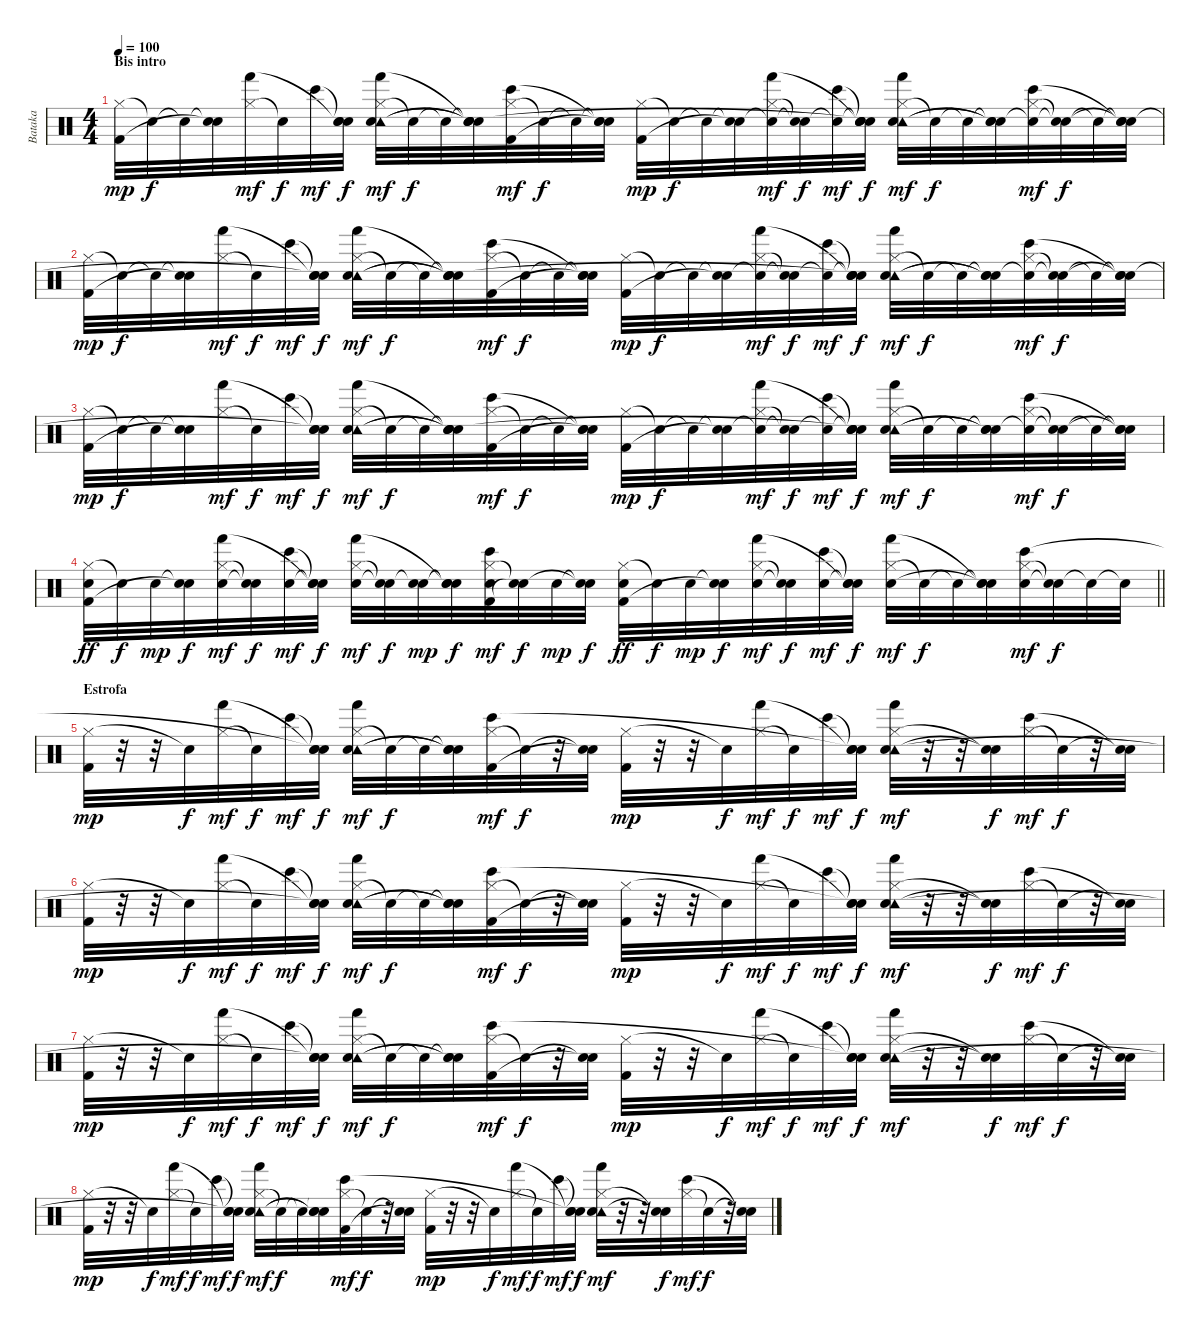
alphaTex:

\track ("Bataka" "Bataka") {instrument percussion}
\staff {score}
\articulation defaults
\ts (4 4)
\section ("" "Bis intro")
\tempo 100
\clef neutral
\ks c
("Hi-Hat (closed)" "Kick (hit) 2").32{dy mp} "Snare (hit)"{t}.32{dy f} "Snare (hit)"{t}.32 ("Snare (hit)"{t} "Snare (hit)"{t}).32 ("Hi-Hat (closed)" "Hand (hit)").32{dy mf} "Snare (hit)"{t}.32{dy f} "Bongo High (hit)".32{dy mf} ("Snare (hit)"{t} "Snare (hit)"{t} "Snare (hit)"{t}).32{dy f} ("Hi-Hat (closed)" "Tambourine (hit)" "Electric Snare (hit)" "Hand (hit)").32{dy mf} "Snare (hit)"{t}.32{dy f} "Snare (hit)"{t}.32 ("Snare (hit)"{t} "Snare (hit)"{t} "Snare (hit)"{t} "Snare (hit)"{t}).32 ("Hi-Hat (closed)" "Kick (hit) 2" "Bongo High (hit)").32{dy mf} "Snare (hit)"{t}.32{dy f} "Snare (hit)"{t}.32 ("Snare (hit)"{t} "Snare (hit)"{t} "Snare (hit)"{t}).32 ("Hi-Hat (closed)" "Kick (hit) 2").32{dy mp} "Snare (hit)"{t}.32{dy f} "Snare (hit)"{t}.32 ("Snare (hit)"{t} "Snare (hit)"{t}).32 ("Hi-Hat (closed)" "Snare (hit)"{t} "Hand (hit)").32{dy mf} ("Snare (hit)"{t} "Snare (hit)"{t}).32{dy f} ("Snare (hit)"{t} "Bongo High (hit)").32{dy mf} ("Snare (hit)"{t} "Snare (hit)"{t} "Snare (hit)"{t} "Snare (hit)"{t}).32{dy f} ("Hi-Hat (closed)" "Tambourine (hit)" "Electric Snare (hit)" "Hand (hit)").32{dy mf} "Snare (hit)"{t}.32{dy f} "Snare (hit)"{t}.32 ("Snare (hit)"{t} "Snare (hit)"{t} "Snare (hit)"{t}).32 ("Hi-Hat (closed)" "Snare (hit)"{t} "Bongo High (hit)").32{dy mf} ("Snare (hit)"{t} "Snare (hit)"{t}).32{dy f} "Snare (hit)"{t}.32 ("Snare (hit)"{t} "Snare (hit)"{t} "Snare (hit)"{t}).32 |
("Hi-Hat (closed)" "Kick (hit) 2").32{dy mp} "Snare (hit)"{t}.32{dy f} "Snare (hit)"{t}.32 ("Snare (hit)"{t} "Snare (hit)"{t}).32 ("Hi-Hat (closed)" "Hand (hit)").32{dy mf} "Snare (hit)"{t}.32{dy f} "Bongo High (hit)".32{dy mf} ("Snare (hit)"{t} "Snare (hit)"{t} "Snare (hit)"{t}).32{dy f} ("Hi-Hat (closed)" "Tambourine (hit)" "Electric Snare (hit)" "Hand (hit)").32{dy mf} "Snare (hit)"{t}.32{dy f} "Snare (hit)"{t}.32 ("Snare (hit)"{t} "Snare (hit)"{t} "Snare (hit)"{t} "Snare (hit)"{t}).32 ("Hi-Hat (closed)" "Kick (hit) 2" "Bongo High (hit)").32{dy mf} "Snare (hit)"{t}.32{dy f} "Snare (hit)"{t}.32 ("Snare (hit)"{t} "Snare (hit)"{t} "Snare (hit)"{t}).32 ("Hi-Hat (closed)" "Kick (hit) 2").32{dy mp} "Snare (hit)"{t}.32{dy f} "Snare (hit)"{t}.32 ("Snare (hit)"{t} "Snare (hit)"{t}).32 ("Hi-Hat (closed)" "Snare (hit)"{t} "Hand (hit)").32{dy mf} ("Snare (hit)"{t} "Snare (hit)"{t}).32{dy f} ("Snare (hit)"{t} "Bongo High (hit)").32{dy mf} ("Snare (hit)"{t} "Snare (hit)"{t} "Snare (hit)"{t} "Snare (hit)"{t}).32{dy f} ("Hi-Hat (closed)" "Tambourine (hit)" "Electric Snare (hit)" "Hand (hit)").32{dy mf} "Snare (hit)"{t}.32{dy f} "Snare (hit)"{t}.32 ("Snare (hit)"{t} "Snare (hit)"{t} "Snare (hit)"{t}).32 ("Hi-Hat (closed)" "Snare (hit)"{t} "Bongo High (hit)").32{dy mf} ("Snare (hit)"{t} "Snare (hit)"{t}).32{dy f} "Snare (hit)"{t}.32 ("Snare (hit)"{t} "Snare (hit)"{t} "Snare (hit)"{t}).32 |
("Hi-Hat (closed)" "Kick (hit) 2").32{dy mp} "Snare (hit)"{t}.32{dy f} "Snare (hit)"{t}.32 ("Snare (hit)"{t} "Snare (hit)"{t}).32 ("Hi-Hat (closed)" "Hand (hit)").32{dy mf} "Snare (hit)"{t}.32{dy f} "Bongo High (hit)".32{dy mf} ("Snare (hit)"{t} "Snare (hit)"{t} "Snare (hit)"{t}).32{dy f} ("Hi-Hat (closed)" "Tambourine (hit)" "Electric Snare (hit)" "Hand (hit)").32{dy mf} "Snare (hit)"{t}.32{dy f} "Snare (hit)"{t}.32 ("Snare (hit)"{t} "Snare (hit)"{t} "Snare (hit)"{t} "Snare (hit)"{t}).32 ("Hi-Hat (closed)" "Kick (hit) 2" "Bongo High (hit)").32{dy mf} "Snare (hit)"{t}.32{dy f} "Snare (hit)"{t}.32 ("Snare (hit)"{t} "Snare (hit)"{t} "Snare (hit)"{t}).32 ("Hi-Hat (closed)" "Kick (hit) 2").32{dy mp} "Snare (hit)"{t}.32{dy f} "Snare (hit)"{t}.32 ("Snare (hit)"{t} "Snare (hit)"{t}).32 ("Hi-Hat (closed)" "Snare (hit)"{t} "Hand (hit)").32{dy mf} ("Snare (hit)"{t} "Snare (hit)"{t}).32{dy f} ("Snare (hit)"{t} "Bongo High (hit)").32{dy mf} ("Snare (hit)"{t} "Snare (hit)"{t} "Snare (hit)"{t} "Snare (hit)"{t}).32{dy f} ("Hi-Hat (closed)" "Tambourine (hit)" "Electric Snare (hit)" "Hand (hit)").32{dy mf} "Snare (hit)"{t}.32{dy f} "Snare (hit)"{t}.32 ("Snare (hit)"{t} "Snare (hit)"{t} "Snare (hit)"{t}).32 ("Hi-Hat (closed)" "Snare (hit)"{t} "Bongo High (hit)").32{dy mf} ("Snare (hit)"{t} "Snare (hit)"{t}).32{dy f} "Snare (hit)"{t}.32 ("Snare (hit)"{t} "Snare (hit)"{t} "Snare (hit)"{t}).32 |
\barLineRight lightlight
("Hi-Hat (closed)" "Kick (hit) 2" "Electric Snare (hit)").32{dy ff} "Snare (hit)"{t}.32{dy f} "Electric Snare (hit)".32{dy mp} ("Snare (hit)"{t} "Electric Snare (hit)"{t}).32{dy f} ("Hi-Hat (closed)" "Electric Snare (hit)" "Hand (hit)").32{dy mf} ("Snare (hit)"{t} "Snare (hit)"{t}).32{dy f} ("Electric Snare (hit)" "Bongo High (hit)").32{dy mf} ("Snare (hit)"{t} "Snare (hit)"{t} "Snare (hit)"{t}).32{dy f} ("Hi-Hat (closed)" "Electric Snare (hit)" "Hand (hit)").32{dy mf} ("Electric Snare (hit)"{t} "Snare (hit)"{t}).32{dy f} ("Electric Snare (hit)" "Snare (hit)"{t}).32{dy mp} ("Snare (hit)"{t} "Snare (hit)"{t} "Snare (hit)"{t}).32{dy f} ("Hi-Hat (closed)" "Kick (hit) 2" "Electric Snare (hit)" "Bongo High (hit)").32{dy mf} ("Electric Snare (hit)"{t} "Snare (hit)"{t}).32{dy f} "Electric Snare (hit)".32{dy mp} ("Snare (hit)"{t} "Snare (hit)"{t}).32{dy f} ("Hi-Hat (closed)" "Kick (hit) 2" "Electric Snare (hit)").32{dy ff} "Snare (hit)"{t}.32{dy f} "Electric Snare (hit)".32{dy mp} ("Snare (hit)"{t} "Snare (hit)"{t}).32{dy f} ("Hi-Hat (closed)" "Electric Snare (hit)" "Hand (hit)").32{dy mf} ("Snare (hit)"{t} "Snare (hit)"{t}).32{dy f} ("Electric Snare (hit)" "Bongo High (hit)").32{dy mf} ("Snare (hit)"{t} "Snare (hit)"{t} "Snare (hit)"{t}).32{dy f} ("Hi-Hat (closed)" "Electric Snare (hit)" "Hand (hit)").32{dy mf} "Snare (hit)"{t}.32{dy f} "Snare (hit)"{t}.32 ("Snare (hit)"{t} "Snare (hit)"{t} "Snare (hit)"{t}).32 ("Hi-Hat (closed)" "Electric Snare (hit)" "Bongo High (hit)").32{dy mf} ("Snare (hit)"{t} "Snare (hit)"{t}).32{dy f} "Snare (hit)"{t}.32 "Snare (hit)"{t}.32 |
\section ("" "Estrofa")
("Hi-Hat (closed)" "Kick (hit) 2").32{dy mp} r.32 r.32 "Snare (hit)"{t}.32{dy f} ("Hi-Hat (closed)" "Hand (hit)").32{dy mf} "Snare (hit)"{t}.32{dy f} "Bongo High (hit)".32{dy mf} ("Snare (hit)"{t} "Snare (hit)"{t} "Snare (hit)"{t}).32{dy f} ("Hi-Hat (closed)" "Tambourine (hit)" "Electric Snare (hit)" "Hand (hit)").32{dy mf} "Snare (hit)"{t}.32{dy f} "Snare (hit)"{t}.32 ("Snare (hit)"{t} "Snare (hit)"{t} "Snare (hit)"{t}).32 ("Hi-Hat (closed)" "Kick (hit) 2" "Bongo High (hit)").32{dy mf} "Snare (hit)"{t}.32{dy f} r.32 ("Snare (hit)"{t} "Snare (hit)"{t}).32 ("Hi-Hat (closed)" "Kick (hit) 2").32{dy mp} r.32 r.32 "Snare (hit)"{t}.32{dy f} ("Hi-Hat (closed)" "Hand (hit)").32{dy mf} "Snare (hit)"{t}.32{dy f} "Bongo High (hit)".32{dy mf} ("Snare (hit)"{t} "Snare (hit)"{t} "Snare (hit)"{t}).32{dy f} ("Hi-Hat (closed)" "Tambourine (hit)" "Electric Snare (hit)" "Hand (hit)").32{dy mf} r.32 r.32 ("Snare (hit)"{t} "Snare (hit)"{t}).32{dy f} ("Hi-Hat (closed)" "Bongo High (hit)").32{dy mf} "Snare (hit)"{t}.32{dy f} r.32 ("Snare (hit)"{t} "Snare (hit)"{t}).32 |
("Hi-Hat (closed)" "Kick (hit) 2").32{dy mp} r.32 r.32 "Snare (hit)"{t}.32{dy f} ("Hi-Hat (closed)" "Hand (hit)").32{dy mf} "Snare (hit)"{t}.32{dy f} "Bongo High (hit)".32{dy mf} ("Snare (hit)"{t} "Snare (hit)"{t} "Snare (hit)"{t}).32{dy f} ("Hi-Hat (closed)" "Tambourine (hit)" "Electric Snare (hit)" "Hand (hit)").32{dy mf} "Snare (hit)"{t}.32{dy f} "Snare (hit)"{t}.32 ("Snare (hit)"{t} "Snare (hit)"{t} "Snare (hit)"{t}).32 ("Hi-Hat (closed)" "Kick (hit) 2" "Bongo High (hit)").32{dy mf} "Snare (hit)"{t}.32{dy f} r.32 ("Snare (hit)"{t} "Snare (hit)"{t}).32 ("Hi-Hat (closed)" "Kick (hit) 2").32{dy mp} r.32 r.32 "Snare (hit)"{t}.32{dy f} ("Hi-Hat (closed)" "Hand (hit)").32{dy mf} "Snare (hit)"{t}.32{dy f} "Bongo High (hit)".32{dy mf} ("Snare (hit)"{t} "Snare (hit)"{t} "Snare (hit)"{t}).32{dy f} ("Hi-Hat (closed)" "Tambourine (hit)" "Electric Snare (hit)" "Hand (hit)").32{dy mf} r.32 r.32 ("Snare (hit)"{t} "Snare (hit)"{t}).32{dy f} ("Hi-Hat (closed)" "Bongo High (hit)").32{dy mf} "Snare (hit)"{t}.32{dy f} r.32 ("Snare (hit)"{t} "Snare (hit)"{t}).32 |
("Hi-Hat (closed)" "Kick (hit) 2").32{dy mp} r.32 r.32 "Snare (hit)"{t}.32{dy f} ("Hi-Hat (closed)" "Hand (hit)").32{dy mf} "Snare (hit)"{t}.32{dy f} "Bongo High (hit)".32{dy mf} ("Snare (hit)"{t} "Snare (hit)"{t} "Snare (hit)"{t}).32{dy f} ("Hi-Hat (closed)" "Tambourine (hit)" "Electric Snare (hit)" "Hand (hit)").32{dy mf} "Snare (hit)"{t}.32{dy f} "Snare (hit)"{t}.32 ("Snare (hit)"{t} "Snare (hit)"{t} "Snare (hit)"{t}).32 ("Hi-Hat (closed)" "Kick (hit) 2" "Bongo High (hit)").32{dy mf} "Snare (hit)"{t}.32{dy f} r.32 ("Snare (hit)"{t} "Snare (hit)"{t}).32 ("Hi-Hat (closed)" "Kick (hit) 2").32{dy mp} r.32 r.32 "Snare (hit)"{t}.32{dy f} ("Hi-Hat (closed)" "Hand (hit)").32{dy mf} "Snare (hit)"{t}.32{dy f} "Bongo High (hit)".32{dy mf} ("Snare (hit)"{t} "Snare (hit)"{t} "Snare (hit)"{t}).32{dy f} ("Hi-Hat (closed)" "Tambourine (hit)" "Electric Snare (hit)" "Hand (hit)").32{dy mf} r.32 r.32 ("Snare (hit)"{t} "Snare (hit)"{t}).32{dy f} ("Hi-Hat (closed)" "Bongo High (hit)").32{dy mf} "Snare (hit)"{t}.32{dy f} r.32 ("Snare (hit)"{t} "Snare (hit)"{t}).32 |
("Hi-Hat (closed)" "Kick (hit) 2").32{dy mp} r.32 r.32 "Snare (hit)"{t}.32{dy f} ("Hi-Hat (closed)" "Hand (hit)").32{dy mf} "Snare (hit)"{t}.32{dy f} "Bongo High (hit)".32{dy mf} ("Snare (hit)"{t} "Snare (hit)"{t} "Snare (hit)"{t}).32{dy f} ("Hi-Hat (closed)" "Tambourine (hit)" "Electric Snare (hit)" "Hand (hit)").32{dy mf} "Snare (hit)"{t}.32{dy f} "Snare (hit)"{t}.32 ("Snare (hit)"{t} "Snare (hit)"{t} "Snare (hit)"{t}).32 ("Hi-Hat (closed)" "Kick (hit) 2" "Bongo High (hit)").32{dy mf} "Snare (hit)"{t}.32{dy f} r.32 ("Snare (hit)"{t} "Snare (hit)"{t}).32 ("Hi-Hat (closed)" "Kick (hit) 2").32{dy mp} r.32 r.32 "Snare (hit)"{t}.32{dy f} ("Hi-Hat (closed)" "Hand (hit)").32{dy mf} "Snare (hit)"{t}.32{dy f} "Bongo High (hit)".32{dy mf} ("Snare (hit)"{t} "Snare (hit)"{t} "Snare (hit)"{t}).32{dy f} ("Hi-Hat (closed)" "Tambourine (hit)" "Electric Snare (hit)" "Hand (hit)").32{dy mf} r.32 r.32 ("Snare (hit)"{t} "Snare (hit)"{t}).32{dy f} ("Hi-Hat (closed)" "Bongo High (hit)").32{dy mf} "Snare (hit)"{t}.32{dy f} r.32 ("Snare (hit)"{t} "Snare (hit)"{t}).32
